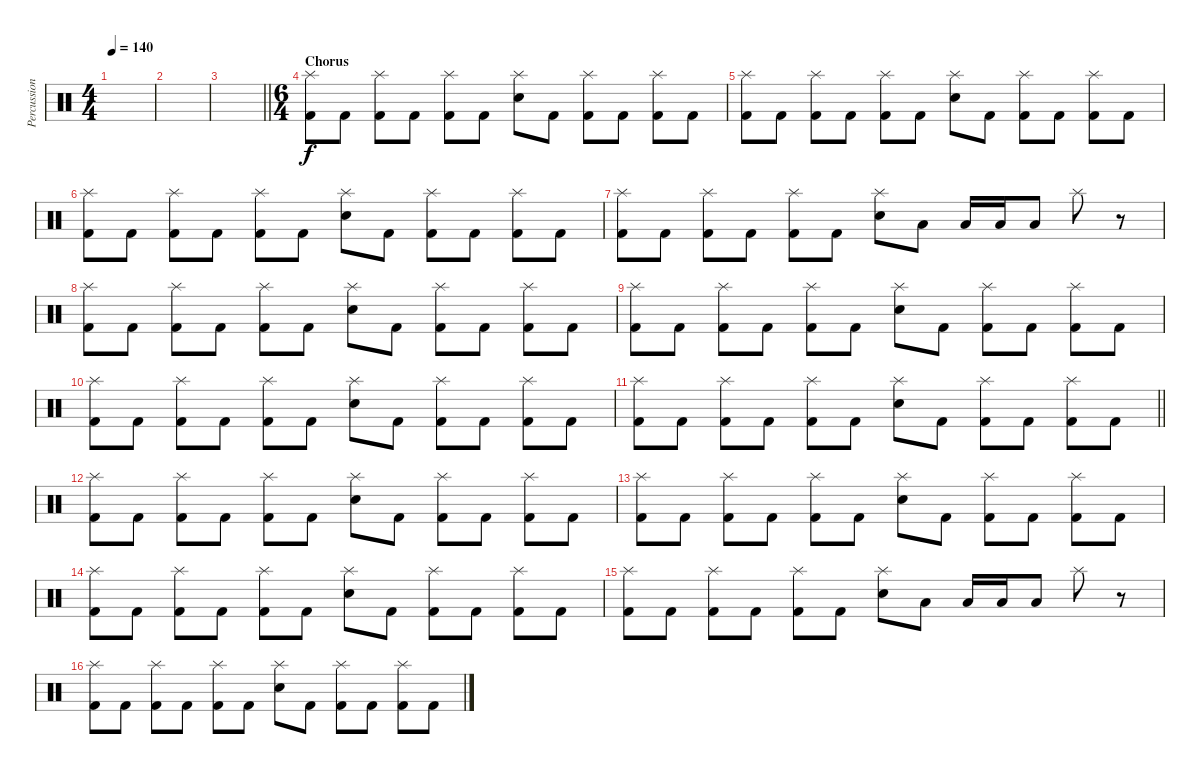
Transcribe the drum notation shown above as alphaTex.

\track ("Percussion" "Percussion") {instrument percussion}
\staff {score}
\articulation defaults
\ts (4 4)
\section ("" "")
\tempo 140
\clef neutral
\ks c
|
|
\barLineRight lightlight
|
\ts (6 4)
\section ("" "Chorus")
("Splash (hit)" "Kick (hit) 2").8 "Kick (hit) 2".8 ("Splash (hit)" "Kick (hit) 2").8 "Kick (hit) 2".8 ("Splash (hit)" "Kick (hit) 2").8 "Kick (hit) 2".8 ("Splash (hit)" "Electric Snare (hit)").8 "Kick (hit) 2".8 ("Splash (hit)" "Kick (hit) 2").8 "Kick (hit) 2".8 ("Splash (hit)" "Kick (hit) 2").8 "Kick (hit) 2".8 |
("Splash (hit)" "Kick (hit) 2").8 "Kick (hit) 2".8 ("Splash (hit)" "Kick (hit) 2").8 "Kick (hit) 2".8 ("Splash (hit)" "Kick (hit) 2").8 "Kick (hit) 2".8 ("Splash (hit)" "Electric Snare (hit)").8 "Kick (hit) 2".8 ("Splash (hit)" "Kick (hit) 2").8 "Kick (hit) 2".8 ("Splash (hit)" "Kick (hit) 2").8 "Kick (hit) 2".8 |
("Splash (hit)" "Kick (hit) 2").8 "Kick (hit) 2".8 ("Splash (hit)" "Kick (hit) 2").8 "Kick (hit) 2".8 ("Splash (hit)" "Kick (hit) 2").8 "Kick (hit) 2".8 ("Splash (hit)" "Electric Snare (hit)").8 "Kick (hit) 2".8 ("Splash (hit)" "Kick (hit) 2").8 "Kick (hit) 2".8 ("Splash (hit)" "Kick (hit) 2").8 "Kick (hit) 2".8 |
("Splash (hit)" "Kick (hit) 2").8 "Kick (hit) 2".8 ("Splash (hit)" "Kick (hit) 2").8 "Kick (hit) 2".8 ("Splash (hit)" "Kick (hit) 2").8 "Kick (hit) 2".8 ("Splash (hit)" "Electric Snare (hit)").8 "Low Tom (hit)".8 "Low Tom (hit)".16 "Low Tom (hit)".16 "Low Tom (hit)".8 "Splash (hit)".8 r.8 |
("Splash (hit)" "Kick (hit) 2").8 "Kick (hit) 2".8 ("Splash (hit)" "Kick (hit) 2").8 "Kick (hit) 2".8 ("Splash (hit)" "Kick (hit) 2").8 "Kick (hit) 2".8 ("Splash (hit)" "Electric Snare (hit)").8 "Kick (hit) 2".8 ("Splash (hit)" "Kick (hit) 2").8 "Kick (hit) 2".8 ("Splash (hit)" "Kick (hit) 2").8 "Kick (hit) 2".8 |
("Splash (hit)" "Kick (hit) 2").8 "Kick (hit) 2".8 ("Splash (hit)" "Kick (hit) 2").8 "Kick (hit) 2".8 ("Splash (hit)" "Kick (hit) 2").8 "Kick (hit) 2".8 ("Splash (hit)" "Electric Snare (hit)").8 "Kick (hit) 2".8 ("Splash (hit)" "Kick (hit) 2").8 "Kick (hit) 2".8 ("Splash (hit)" "Kick (hit) 2").8 "Kick (hit) 2".8 |
("Splash (hit)" "Kick (hit) 2").8 "Kick (hit) 2".8 ("Splash (hit)" "Kick (hit) 2").8 "Kick (hit) 2".8 ("Splash (hit)" "Kick (hit) 2").8 "Kick (hit) 2".8 ("Splash (hit)" "Electric Snare (hit)").8 "Kick (hit) 2".8 ("Splash (hit)" "Kick (hit) 2").8 "Kick (hit) 2".8 ("Splash (hit)" "Kick (hit) 2").8 "Kick (hit) 2".8 |
\barLineRight lightlight
("Splash (hit)" "Kick (hit) 2").8 "Kick (hit) 2".8 ("Splash (hit)" "Kick (hit) 2").8 "Kick (hit) 2".8 ("Splash (hit)" "Kick (hit) 2").8 "Kick (hit) 2".8 ("Splash (hit)" "Electric Snare (hit)").8 "Kick (hit) 2".8 ("Splash (hit)" "Kick (hit) 2").8 "Kick (hit) 2".8 ("Splash (hit)" "Kick (hit) 2").8 "Kick (hit) 2".8 |
\section ("" "")
("Splash (hit)" "Kick (hit) 2").8 "Kick (hit) 2".8 ("Splash (hit)" "Kick (hit) 2").8 "Kick (hit) 2".8 ("Splash (hit)" "Kick (hit) 2").8 "Kick (hit) 2".8 ("Splash (hit)" "Electric Snare (hit)").8 "Kick (hit) 2".8 ("Splash (hit)" "Kick (hit) 2").8 "Kick (hit) 2".8 ("Splash (hit)" "Kick (hit) 2").8 "Kick (hit) 2".8 |
("Splash (hit)" "Kick (hit) 2").8 "Kick (hit) 2".8 ("Splash (hit)" "Kick (hit) 2").8 "Kick (hit) 2".8 ("Splash (hit)" "Kick (hit) 2").8 "Kick (hit) 2".8 ("Splash (hit)" "Electric Snare (hit)").8 "Kick (hit) 2".8 ("Splash (hit)" "Kick (hit) 2").8 "Kick (hit) 2".8 ("Splash (hit)" "Kick (hit) 2").8 "Kick (hit) 2".8 |
("Splash (hit)" "Kick (hit) 2").8 "Kick (hit) 2".8 ("Splash (hit)" "Kick (hit) 2").8 "Kick (hit) 2".8 ("Splash (hit)" "Kick (hit) 2").8 "Kick (hit) 2".8 ("Splash (hit)" "Electric Snare (hit)").8 "Kick (hit) 2".8 ("Splash (hit)" "Kick (hit) 2").8 "Kick (hit) 2".8 ("Splash (hit)" "Kick (hit) 2").8 "Kick (hit) 2".8 |
("Splash (hit)" "Kick (hit) 2").8 "Kick (hit) 2".8 ("Splash (hit)" "Kick (hit) 2").8 "Kick (hit) 2".8 ("Splash (hit)" "Kick (hit) 2").8 "Kick (hit) 2".8 ("Splash (hit)" "Electric Snare (hit)").8 "Low Tom (hit)".8 "Low Tom (hit)".16 "Low Tom (hit)".16 "Low Tom (hit)".8 "Splash (hit)".8 r.8 |
("Splash (hit)" "Kick (hit) 2").8 "Kick (hit) 2".8 ("Splash (hit)" "Kick (hit) 2").8 "Kick (hit) 2".8 ("Splash (hit)" "Kick (hit) 2").8 "Kick (hit) 2".8 ("Splash (hit)" "Electric Snare (hit)").8 "Kick (hit) 2".8 ("Splash (hit)" "Kick (hit) 2").8 "Kick (hit) 2".8 ("Splash (hit)" "Kick (hit) 2").8 "Kick (hit) 2".8
